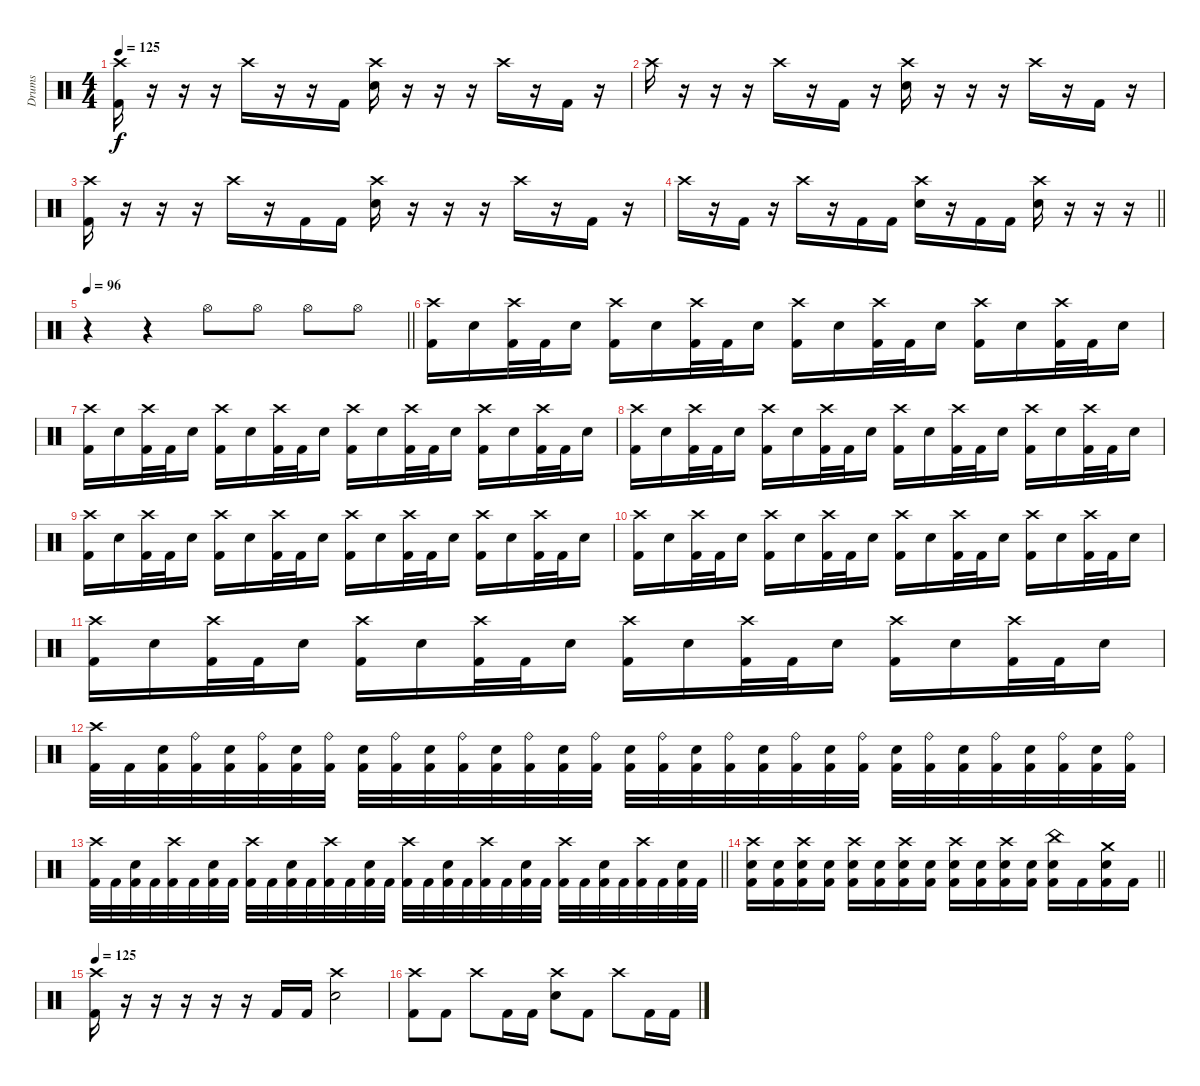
\track ("Drums" "Drums") {instrument percussion}
\staff
\articulation defaults
\ts (4 4)
\tempo 125
\clef neutral
\ks c
("Crash high (hit)" "Kick (hit) 2").16{dy f} r.16 r.16 r.16 "Crash high (hit)".16 r.16 r.16 "Kick (hit) 2".16 ("Crash high (hit)" "Electric Snare (hit)").16 r.16 r.16 r.16 "Crash high (hit)".16 r.16 "Kick (hit) 2".16 r.16 |
"Crash high (hit)".16 r.16 r.16 r.16 "Crash high (hit)".16 r.16 "Kick (hit) 2".16 r.16 ("Crash high (hit)" "Electric Snare (hit)").16 r.16 r.16 r.16 "Crash high (hit)".16 r.16 "Kick (hit) 2".16 r.16 |
("Crash high (hit)" "Kick (hit) 2").16 r.16 r.16 r.16 "Crash high (hit)".16 r.16 "Kick (hit) 2".16 "Kick (hit) 2".16 ("Crash high (hit)" "Electric Snare (hit)").16 r.16 r.16 r.16 "Crash high (hit)".16 r.16 "Kick (hit) 2".16 r.16 |
\barLineRight lightlight "Crash high (hit)".16
r.16 "Kick (hit) 2".16 r.16 "Crash high (hit)".16 r.16 "Kick (hit) 2".16 "Kick (hit) 2".16 ("Crash high (hit)" "Electric Snare (hit)").16 r.16 "Kick (hit) 2".16 "Kick (hit) 2".16 ("Crash high (hit)" "Electric Snare (hit)").16 r.16 r.16 r.16 |
\tempo 96
\barLineRight lightlight
r.4 r.4 "Hi-Hat (open)".8 "Hi-Hat (open)".8 "Hi-Hat (open)".8 "Hi-Hat (open)".8 |
\section ("" "")
("Crash high (hit)" "Kick (hit) 2").16 "Electric Snare (hit)".16 ("Crash high (hit)" "Kick (hit) 2").32 "Kick (hit) 2".32 "Electric Snare (hit)".16 ("Crash high (hit)" "Kick (hit) 2").16 "Electric Snare (hit)".16 ("Crash high (hit)" "Kick (hit) 2").32 "Kick (hit) 2".32 "Electric Snare (hit)".16 ("Crash high (hit)" "Kick (hit) 2").16 "Electric Snare (hit)".16 ("Crash high (hit)" "Kick (hit) 2").32 "Kick (hit) 2".32 "Electric Snare (hit)".16 ("Crash high (hit)" "Kick (hit) 2").16 "Electric Snare (hit)".16 ("Crash high (hit)" "Kick (hit) 2").32 "Kick (hit) 2".32 "Electric Snare (hit)".16 |
("Crash high (hit)" "Kick (hit) 2").16 "Electric Snare (hit)".16 ("Crash high (hit)" "Kick (hit) 2").32 "Kick (hit) 2".32 "Electric Snare (hit)".16 ("Crash high (hit)" "Kick (hit) 2").16 "Electric Snare (hit)".16 ("Crash high (hit)" "Kick (hit) 2").32 "Kick (hit) 2".32 "Electric Snare (hit)".16 ("Crash high (hit)" "Kick (hit) 2").16 "Electric Snare (hit)".16 ("Crash high (hit)" "Kick (hit) 2").32 "Kick (hit) 2".32 "Electric Snare (hit)".16 ("Crash high (hit)" "Kick (hit) 2").16 "Electric Snare (hit)".16 ("Crash high (hit)" "Kick (hit) 2").32 "Kick (hit) 2".32 "Electric Snare (hit)".16 |
("Crash high (hit)" "Kick (hit) 2").16 "Electric Snare (hit)".16 ("Crash high (hit)" "Kick (hit) 2").32 "Kick (hit) 2".32 "Electric Snare (hit)".16 ("Crash high (hit)" "Kick (hit) 2").16 "Electric Snare (hit)".16 ("Crash high (hit)" "Kick (hit) 2").32 "Kick (hit) 2".32 "Electric Snare (hit)".16 ("Crash high (hit)" "Kick (hit) 2").16 "Electric Snare (hit)".16 ("Crash high (hit)" "Kick (hit) 2").32 "Kick (hit) 2".32 "Electric Snare (hit)".16 ("Crash high (hit)" "Kick (hit) 2").16 "Electric Snare (hit)".16 ("Crash high (hit)" "Kick (hit) 2").32 "Kick (hit) 2".32 "Electric Snare (hit)".16 |
("Crash high (hit)" "Kick (hit) 2").16 "Electric Snare (hit)".16 ("Crash high (hit)" "Kick (hit) 2").32 "Kick (hit) 2".32 "Electric Snare (hit)".16 ("Crash high (hit)" "Kick (hit) 2").16 "Electric Snare (hit)".16 ("Crash high (hit)" "Kick (hit) 2").32 "Kick (hit) 2".32 "Electric Snare (hit)".16 ("Crash high (hit)" "Kick (hit) 2").16 "Electric Snare (hit)".16 ("Crash high (hit)" "Kick (hit) 2").32 "Kick (hit) 2".32 "Electric Snare (hit)".16 ("Crash high (hit)" "Kick (hit) 2").16 "Electric Snare (hit)".16 ("Crash high (hit)" "Kick (hit) 2").32 "Kick (hit) 2".32 "Electric Snare (hit)".16 |
("Crash high (hit)" "Kick (hit) 2").16 "Electric Snare (hit)".16 ("Crash high (hit)" "Kick (hit) 2").32 "Kick (hit) 2".32 "Electric Snare (hit)".16 ("Crash high (hit)" "Kick (hit) 2").16 "Electric Snare (hit)".16 ("Crash high (hit)" "Kick (hit) 2").32 "Kick (hit) 2".32 "Electric Snare (hit)".16 ("Crash high (hit)" "Kick (hit) 2").16 "Electric Snare (hit)".16 ("Crash high (hit)" "Kick (hit) 2").32 "Kick (hit) 2".32 "Electric Snare (hit)".16 ("Crash high (hit)" "Kick (hit) 2").16 "Electric Snare (hit)".16 ("Crash high (hit)" "Kick (hit) 2").32 "Kick (hit) 2".32 "Electric Snare (hit)".16 |
("Crash high (hit)" "Kick (hit) 2").16 "Electric Snare (hit)".16 ("Crash high (hit)" "Kick (hit) 2").32 "Kick (hit) 2".32 "Electric Snare (hit)".16 ("Crash high (hit)" "Kick (hit) 2").16 "Electric Snare (hit)".16 ("Crash high (hit)" "Kick (hit) 2").32 "Kick (hit) 2".32 "Electric Snare (hit)".16 ("Crash high (hit)" "Kick (hit) 2").16 "Electric Snare (hit)".16 ("Crash high (hit)" "Kick (hit) 2").32 "Kick (hit) 2".32 "Electric Snare (hit)".16 ("Crash high (hit)" "Kick (hit) 2").16 "Electric Snare (hit)".16 ("Crash high (hit)" "Kick (hit) 2").32 "Kick (hit) 2".32 "Electric Snare (hit)".16 |
("Crash high (hit)" "Kick (hit) 2").32 "Kick (hit) 2".32 ("Electric Snare (hit)" "Kick (hit) 2").32 ("Ride (bell)" "Kick (hit) 2").32 ("Electric Snare (hit)" "Kick (hit) 2").32 ("Ride (bell)" "Kick (hit) 2").32 ("Electric Snare (hit)" "Kick (hit) 2").32 ("Ride (bell)" "Kick (hit) 2").32 ("Electric Snare (hit)" "Kick (hit) 2").32 ("Ride (bell)" "Kick (hit) 2").32 ("Electric Snare (hit)" "Kick (hit) 2").32 ("Ride (bell)" "Kick (hit) 2").32 ("Electric Snare (hit)" "Kick (hit) 2").32 ("Ride (bell)" "Kick (hit) 2").32 ("Electric Snare (hit)" "Kick (hit) 2").32 ("Ride (bell)" "Kick (hit) 2").32 ("Electric Snare (hit)" "Kick (hit) 2").32 ("Ride (bell)" "Kick (hit) 2").32 ("Electric Snare (hit)" "Kick (hit) 2").32 ("Ride (bell)" "Kick (hit) 2").32 ("Electric Snare (hit)" "Kick (hit) 2").32 ("Ride (bell)" "Kick (hit) 2").32 ("Electric Snare (hit)" "Kick (hit) 2").32 ("Ride (bell)" "Kick (hit) 2").32 ("Electric Snare (hit)" "Kick (hit) 2").32 ("Ride (bell)" "Kick (hit) 2").32 ("Electric Snare (hit)" "Kick (hit) 2").32 ("Ride (bell)" "Kick (hit) 2").32 ("Electric Snare (hit)" "Kick (hit) 2").32 ("Ride (bell)" "Kick (hit) 2").32 ("Electric Snare (hit)" "Kick (hit) 2").32 ("Ride (bell)" "Kick (hit) 2").32 |
\barLineRight lightlight
("Crash high (hit)" "Kick (hit) 2").32 "Kick (hit) 2".32 ("Electric Snare (hit)" "Kick (hit) 2").32 "Kick (hit) 2".32 ("Crash high (hit)" "Kick (hit) 2").32 "Kick (hit) 2".32 ("Electric Snare (hit)" "Kick (hit) 2").32 "Kick (hit) 2".32 ("Crash high (hit)" "Kick (hit) 2").32 "Kick (hit) 2".32 ("Electric Snare (hit)" "Kick (hit) 2").32 "Kick (hit) 2".32 ("Crash high (hit)" "Kick (hit) 2").32 "Kick (hit) 2".32 ("Electric Snare (hit)" "Kick (hit) 2").32 "Kick (hit) 2".32 ("Crash high (hit)" "Kick (hit) 2").32 "Kick (hit) 2".32 ("Electric Snare (hit)" "Kick (hit) 2").32 "Kick (hit) 2".32 ("Crash high (hit)" "Kick (hit) 2").32 "Kick (hit) 2".32 ("Electric Snare (hit)" "Kick (hit) 2").32 "Kick (hit) 2".32 ("Crash high (hit)" "Kick (hit) 2").32 "Kick (hit) 2".32 ("Electric Snare (hit)" "Kick (hit) 2").32 "Kick (hit) 2".32 ("Crash high (hit)" "Kick (hit) 2").32 "Kick (hit) 2".32 ("Electric Snare (hit)" "Kick (hit) 2").32 "Kick (hit) 2".32 |
\barLineRight lightlight
("Crash high (hit)" "Electric Snare (hit)" "Kick (hit) 2").16 ("Electric Snare (hit)" "Kick (hit) 2").16 ("Crash high (hit)" "Electric Snare (hit)" "Kick (hit) 2").16 ("Electric Snare (hit)" "Kick (hit) 2").16 ("Crash high (hit)" "Electric Snare (hit)" "Kick (hit) 2").16 ("Electric Snare (hit)" "Kick (hit) 2").16 ("Crash high (hit)" "Electric Snare (hit)" "Kick (hit) 2").16 ("Electric Snare (hit)" "Kick (hit) 2").16 ("Crash high (hit)" "Electric Snare (hit)" "Kick (hit) 2").16 ("Electric Snare (hit)" "Kick (hit) 2").16 ("Crash high (hit)" "Electric Snare (hit)" "Kick (hit) 2").16 ("Electric Snare (hit)" "Kick (hit) 2").16 ("China (hit)" "Electric Snare (hit)" "Kick (hit) 2").16 "Kick (hit) 2".16 ("Crash medium (hit)" "Electric Snare (hit)" "Kick (hit) 2").16 "Kick (hit) 2".16 |
\section ("" "")
\tempo 125
("Crash high (hit)" "Kick (hit) 2").16 r.16 r.16 r.16 r.16 r.16 "Kick (hit) 2".16 "Kick (hit) 2".16 ("Crash high (hit)" "Electric Snare (hit)").2 |
("Crash high (hit)" "Kick (hit) 2").8 "Kick (hit) 2".8 "Crash high (hit)".8 "Kick (hit) 2".16 "Kick (hit) 2".16 ("Crash high (hit)" "Electric Snare (hit)").8 "Kick (hit) 2".8 "Crash high (hit)".8 "Kick (hit) 2".16 "Kick (hit) 2".16
